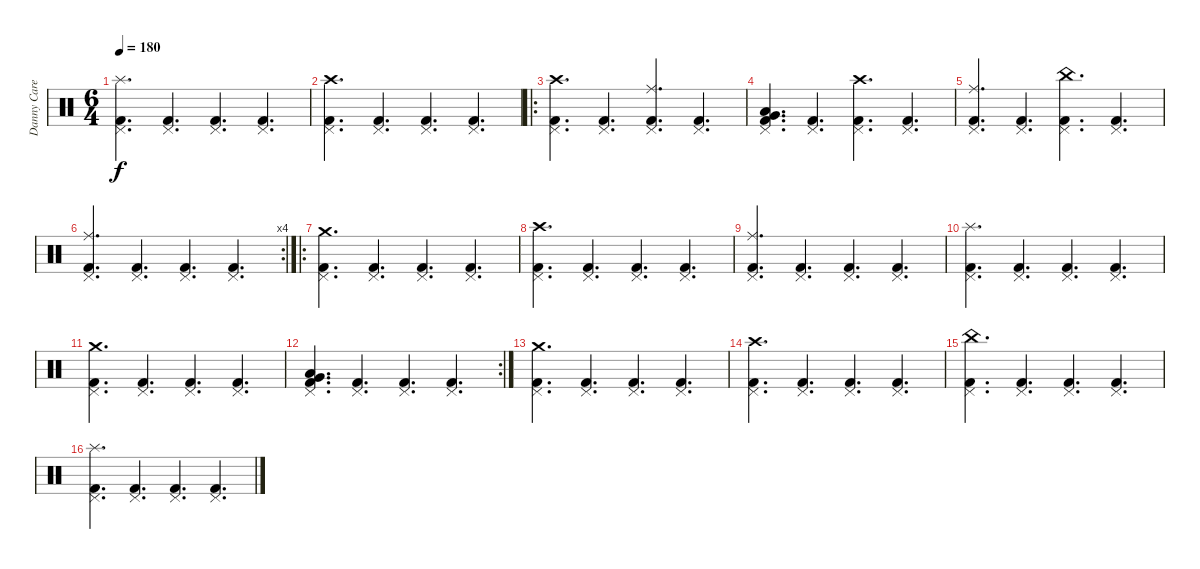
\track ("Danny Carey" "Danny Care") {instrument percussion}
\staff {score}
\articulation defaults
\ts (6 4)
\tempo 180
\clef neutral
\ks c
("Splash (hit)" "Pedal Hi-Hat (hit)" "Kick (hit) 2").4{d dy f} ("Pedal Hi-Hat (hit)" "Kick (hit) 2").4{d} ("Pedal Hi-Hat (hit)" "Kick (hit) 2").4{d} ("Pedal Hi-Hat (hit)" "Kick (hit) 2").4{d} |
("Crash high (hit)" "Pedal Hi-Hat (hit)" "Kick (hit) 2").4{d} ("Pedal Hi-Hat (hit)" "Kick (hit) 2").4{d} ("Pedal Hi-Hat (hit)" "Kick (hit) 2").4{d} ("Pedal Hi-Hat (hit)" "Kick (hit) 2").4{d} |
\ro
("Crash high (hit)" "Pedal Hi-Hat (hit)" "Kick (hit) 2").4{d} ("Pedal Hi-Hat (hit)" "Kick (hit) 2").4{d} ("Ride (middle)" "Pedal Hi-Hat (hit)" "Kick (hit) 2").4{d} ("Pedal Hi-Hat (hit)" "Kick (hit) 2").4{d} |
("Low Floor Tom (hit)" "Very Low Tom (hit)" "Pedal Hi-Hat (hit)" "Kick (hit) 2").4{d} ("Pedal Hi-Hat (hit)" "Kick (hit) 2").4{d} ("Crash high (hit)" "Pedal Hi-Hat (hit)" "Kick (hit) 2").4{d} ("Pedal Hi-Hat (hit)" "Kick (hit) 2").4{d} |
("Ride (middle)" "Pedal Hi-Hat (hit)" "Kick (hit) 2").4{d} ("Pedal Hi-Hat (hit)" "Kick (hit) 2").4{d} ("China (hit)" "Pedal Hi-Hat (hit)" "Kick (hit) 2").4{d} ("Pedal Hi-Hat (hit)" "Kick (hit) 2").4{d} |
\rc 4
("Ride (middle)" "Pedal Hi-Hat (hit)" "Kick (hit) 2").4{d} ("Pedal Hi-Hat (hit)" "Kick (hit) 2").4{d} ("Pedal Hi-Hat (hit)" "Kick (hit) 2").4{d} ("Pedal Hi-Hat (hit)" "Kick (hit) 2").4{d} |
\ro
("Crash medium (hit)" "Pedal Hi-Hat (hit)" "Kick (hit) 2").4{d} ("Pedal Hi-Hat (hit)" "Kick (hit) 2").4{d} ("Pedal Hi-Hat (hit)" "Kick (hit) 2").4{d} ("Pedal Hi-Hat (hit)" "Kick (hit) 2").4{d} |
("Crash high (hit)" "Pedal Hi-Hat (hit)" "Kick (hit) 2").4{d} ("Pedal Hi-Hat (hit)" "Kick (hit) 2").4{d} ("Pedal Hi-Hat (hit)" "Kick (hit) 2").4{d} ("Pedal Hi-Hat (hit)" "Kick (hit) 2").4{d} |
("Ride (middle)" "Pedal Hi-Hat (hit)" "Kick (hit) 2").4{d} ("Pedal Hi-Hat (hit)" "Kick (hit) 2").4{d} ("Pedal Hi-Hat (hit)" "Kick (hit) 2").4{d} ("Pedal Hi-Hat (hit)" "Kick (hit) 2").4{d} |
("Splash (hit)" "Pedal Hi-Hat (hit)" "Kick (hit) 2").4{d} ("Pedal Hi-Hat (hit)" "Kick (hit) 2").4{d} ("Pedal Hi-Hat (hit)" "Kick (hit) 2").4{d} ("Pedal Hi-Hat (hit)" "Kick (hit) 2").4{d} |
("Crash medium (hit)" "Pedal Hi-Hat (hit)" "Kick (hit) 2").4{d} ("Pedal Hi-Hat (hit)" "Kick (hit) 2").4{d} ("Pedal Hi-Hat (hit)" "Kick (hit) 2").4{d} ("Pedal Hi-Hat (hit)" "Kick (hit) 2").4{d} |
\rc 2
("Very Low Tom (hit)" "Low Floor Tom (hit)" "Pedal Hi-Hat (hit)" "Kick (hit) 2").4{d} ("Pedal Hi-Hat (hit)" "Kick (hit) 2").4{d} ("Pedal Hi-Hat (hit)" "Kick (hit) 2").4{d} ("Pedal Hi-Hat (hit)" "Kick (hit) 2").4{d} |
("Crash medium (hit)" "Pedal Hi-Hat (hit)" "Kick (hit) 2").4{d} ("Pedal Hi-Hat (hit)" "Kick (hit) 2").4{d} ("Pedal Hi-Hat (hit)" "Kick (hit) 2").4{d} ("Pedal Hi-Hat (hit)" "Kick (hit) 2").4{d} |
("Crash high (hit)" "Pedal Hi-Hat (hit)" "Kick (hit) 2").4{d} ("Pedal Hi-Hat (hit)" "Kick (hit) 2").4{d} ("Pedal Hi-Hat (hit)" "Kick (hit) 2").4{d} ("Pedal Hi-Hat (hit)" "Kick (hit) 2").4{d} |
("China (hit)" "Pedal Hi-Hat (hit)" "Kick (hit) 2").4{d} ("Pedal Hi-Hat (hit)" "Kick (hit) 2").4{d} ("Pedal Hi-Hat (hit)" "Kick (hit) 2").4{d} ("Pedal Hi-Hat (hit)" "Kick (hit) 2").4{d} |
("Splash (hit)" "Pedal Hi-Hat (hit)" "Kick (hit) 2").4{d} ("Pedal Hi-Hat (hit)" "Kick (hit) 2").4{d} ("Pedal Hi-Hat (hit)" "Kick (hit) 2").4{d} ("Pedal Hi-Hat (hit)" "Kick (hit) 2").4{d}
